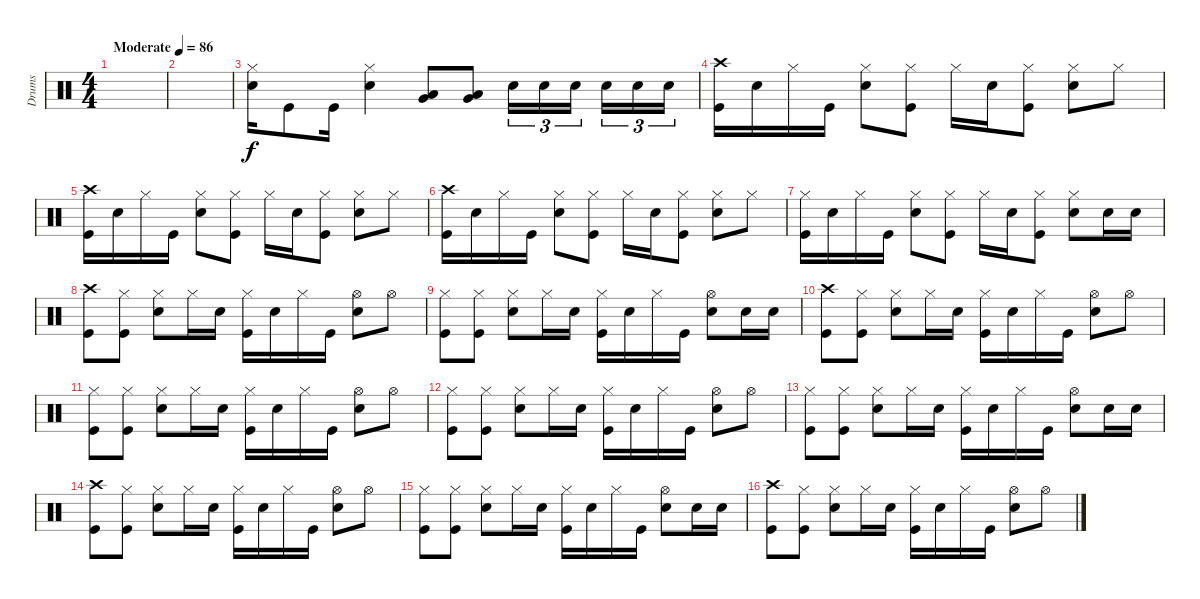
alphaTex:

\track ("Drums" "Drums") {instrument percussion}
\staff {score}
\articulation defaults
\ts (4 4)
\tempo (86 "Moderate")
\clef neutral
\ks c
|
|
("Hi-Hat (closed)" "Snare (hit) 2").16 "Kick (hit)".8 "Kick (hit)".16 ("Hi-Hat (closed)" "Snare (hit) 2").4 ("Very Low Tom (hit)" "Low Floor Tom (hit)").8 ("Very Low Tom (hit)" "Low Floor Tom (hit)").8 "Snare (hit) 2".16{tu (3 2)} "Snare (hit) 2".16{tu (3 2)} "Snare (hit) 2".16{tu (3 2) beam splitsecondary} "Snare (hit) 2".16{tu (3 2)} "Snare (hit) 2".16{tu (3 2)} "Snare (hit) 2".16{tu (3 2)} |
("Crash high (hit)" "Kick (hit)").16 "Snare (hit) 2".16 "Hi-Hat (closed)".16 "Kick (hit)".16 ("Hi-Hat (closed)" "Snare (hit) 2").8 ("Hi-Hat (closed)" "Kick (hit)").8 "Hi-Hat (closed)".16 "Snare (hit) 2".16 ("Hi-Hat (closed)" "Kick (hit)").8 ("Hi-Hat (closed)" "Snare (hit) 2").8 "Hi-Hat (closed)".8 |
("Crash high (hit)" "Kick (hit)").16 "Snare (hit) 2".16 "Hi-Hat (closed)".16 "Kick (hit)".16 ("Hi-Hat (closed)" "Snare (hit) 2").8 ("Hi-Hat (closed)" "Kick (hit)").8 "Hi-Hat (closed)".16 "Snare (hit) 2".16 ("Hi-Hat (closed)" "Kick (hit)").8 ("Hi-Hat (closed)" "Snare (hit) 2").8 "Hi-Hat (closed)".8 |
("Crash high (hit)" "Kick (hit)").16 "Snare (hit) 2".16 "Hi-Hat (closed)".16 "Kick (hit)".16 ("Hi-Hat (closed)" "Snare (hit) 2").8 ("Hi-Hat (closed)" "Kick (hit)").8 "Hi-Hat (closed)".16 "Snare (hit) 2".16 ("Hi-Hat (closed)" "Kick (hit)").8 ("Hi-Hat (closed)" "Snare (hit) 2").8 "Hi-Hat (closed)".8 |
("Hi-Hat (closed)" "Kick (hit)").16 "Snare (hit) 2".16 "Hi-Hat (closed)".16 "Kick (hit)".16 ("Hi-Hat (closed)" "Snare (hit) 2").8 ("Hi-Hat (closed)" "Kick (hit)").8 "Hi-Hat (closed)".16 "Snare (hit) 2".16 ("Hi-Hat (closed)" "Kick (hit)").8 ("Hi-Hat (closed)" "Snare (hit) 2").8 "Snare (hit) 2".16 "Snare (hit) 2".16 |
("Crash high (hit)" "Kick (hit)").8 ("Hi-Hat (closed)" "Kick (hit)").8 ("Hi-Hat (closed)" "Snare (hit) 2").8 "Hi-Hat (closed)".16 "Snare (hit) 2".16 ("Hi-Hat (closed)" "Kick (hit)").16 "Snare (hit) 2".16 "Hi-Hat (closed)".16 "Kick (hit)".16 ("Hi-Hat (open)" "Snare (hit) 2").8 "Hi-Hat (open)".8 |
("Hi-Hat (closed)" "Kick (hit)").8 ("Hi-Hat (closed)" "Kick (hit)").8 ("Hi-Hat (closed)" "Snare (hit) 2").8 "Hi-Hat (closed)".16 "Snare (hit) 2".16 ("Hi-Hat (closed)" "Kick (hit)").16 "Snare (hit) 2".16 "Hi-Hat (closed)".16 "Kick (hit)".16 ("Hi-Hat (open)" "Snare (hit) 2").8 "Snare (hit) 2".16 "Snare (hit) 2".16 |
("Crash high (hit)" "Kick (hit)").8 ("Hi-Hat (closed)" "Kick (hit)").8 ("Hi-Hat (closed)" "Snare (hit) 2").8 "Hi-Hat (closed)".16 "Snare (hit) 2".16 ("Hi-Hat (closed)" "Kick (hit)").16 "Snare (hit) 2".16 "Hi-Hat (closed)".16 "Kick (hit)".16 ("Hi-Hat (open)" "Snare (hit) 2").8 "Hi-Hat (open)".8 |
("Hi-Hat (closed)" "Kick (hit)").8 ("Hi-Hat (closed)" "Kick (hit)").8 ("Hi-Hat (closed)" "Snare (hit) 2").8 "Hi-Hat (closed)".16 "Snare (hit) 2".16 ("Hi-Hat (closed)" "Kick (hit)").16 "Snare (hit) 2".16 "Hi-Hat (closed)".16 "Kick (hit)".16 ("Hi-Hat (open)" "Snare (hit) 2").8 "Hi-Hat (open)".8 |
("Hi-Hat (closed)" "Kick (hit)").8 ("Hi-Hat (closed)" "Kick (hit)").8 ("Hi-Hat (closed)" "Snare (hit) 2").8 "Hi-Hat (closed)".16 "Snare (hit) 2".16 ("Hi-Hat (closed)" "Kick (hit)").16 "Snare (hit) 2".16 "Hi-Hat (closed)".16 "Kick (hit)".16 ("Hi-Hat (open)" "Snare (hit) 2").8 "Hi-Hat (open)".8 |
("Hi-Hat (closed)" "Kick (hit)").8 ("Hi-Hat (closed)" "Kick (hit)").8 ("Hi-Hat (closed)" "Snare (hit) 2").8 "Hi-Hat (closed)".16 "Snare (hit) 2".16 ("Hi-Hat (closed)" "Kick (hit)").16 "Snare (hit) 2".16 "Hi-Hat (closed)".16 "Kick (hit)".16 ("Hi-Hat (open)" "Snare (hit) 2").8 "Snare (hit) 2".16 "Snare (hit) 2".16 |
("Crash high (hit)" "Kick (hit)").8 ("Hi-Hat (closed)" "Kick (hit)").8 ("Hi-Hat (closed)" "Snare (hit) 2").8 "Hi-Hat (closed)".16 "Snare (hit) 2".16 ("Hi-Hat (closed)" "Kick (hit)").16 "Snare (hit) 2".16 "Hi-Hat (closed)".16 "Kick (hit)".16 ("Hi-Hat (open)" "Snare (hit) 2").8 "Hi-Hat (open)".8 |
("Hi-Hat (closed)" "Kick (hit)").8 ("Hi-Hat (closed)" "Kick (hit)").8 ("Hi-Hat (closed)" "Snare (hit) 2").8 "Hi-Hat (closed)".16 "Snare (hit) 2".16 ("Hi-Hat (closed)" "Kick (hit)").16 "Snare (hit) 2".16 "Hi-Hat (closed)".16 "Kick (hit)".16 ("Hi-Hat (open)" "Snare (hit) 2").8 "Snare (hit) 2".16 "Snare (hit) 2".16 |
("Crash high (hit)" "Kick (hit)").8 ("Hi-Hat (closed)" "Kick (hit)").8 ("Hi-Hat (closed)" "Snare (hit) 2").8 "Hi-Hat (closed)".16 "Snare (hit) 2".16 ("Hi-Hat (closed)" "Kick (hit)").16 "Snare (hit) 2".16 "Hi-Hat (closed)".16 "Kick (hit)".16 ("Hi-Hat (open)" "Snare (hit) 2").8 "Hi-Hat (open)".8
